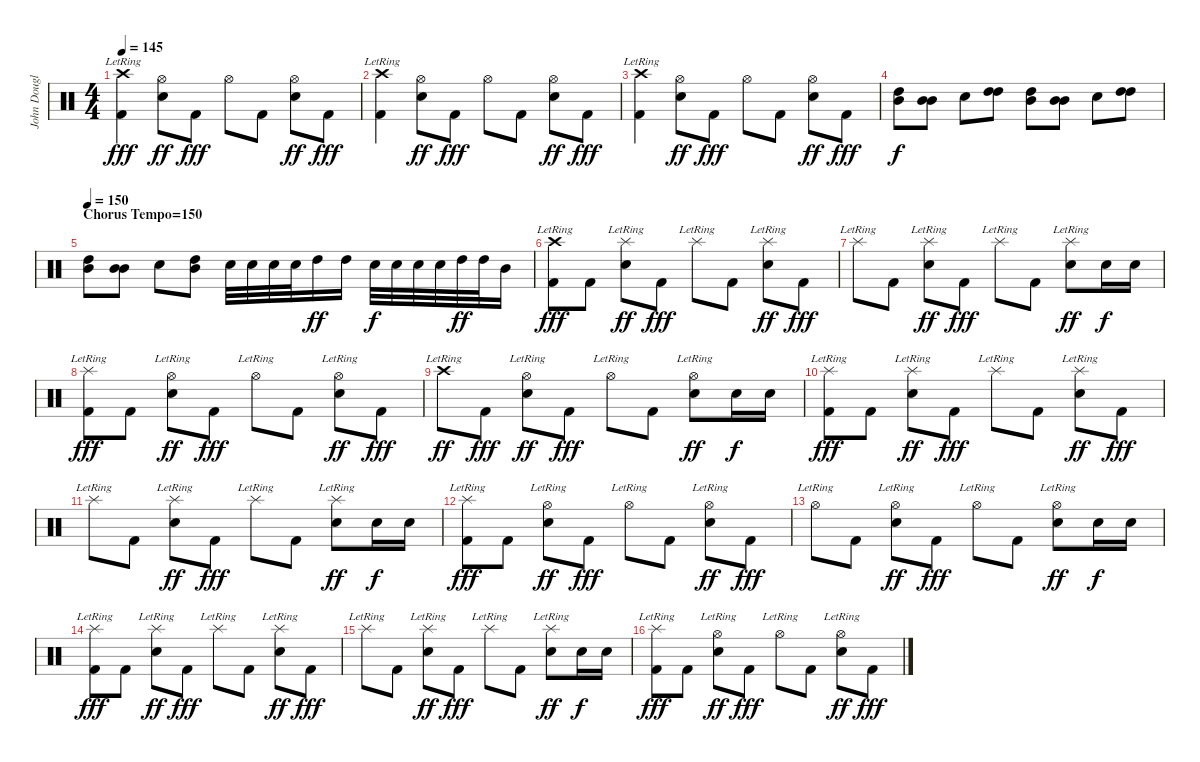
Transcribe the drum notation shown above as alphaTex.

\track ("John Douglas (Drums)" "John Dougl") {instrument percussion}
\staff {score}
\articulation defaults
\ts (4 4)
\tempo 145
\clef neutral
\ks c
("Crash high (hit)"{lr} "Kick (hit) 2").4{dy fff} ("Hi-Hat (open)" "Snare (hit) 2").8{dy ff} "Kick (hit) 2".8{dy fff} "Hi-Hat (open)".8 "Kick (hit) 2".8 ("Hi-Hat (open)" "Snare (hit) 2").8{dy ff} "Kick (hit) 2".8{dy fff} |
("Crash high (hit)"{lr} "Kick (hit) 2").4 ("Hi-Hat (open)" "Snare (hit) 2").8{dy ff} "Kick (hit) 2".8{dy fff} "Hi-Hat (open)".8 "Kick (hit) 2".8 ("Hi-Hat (open)" "Snare (hit) 2").8{dy ff} "Kick (hit) 2".8{dy fff} |
("Crash high (hit)"{lr} "Kick (hit) 2").4 ("Hi-Hat (open)" "Snare (hit) 2").8{dy ff} "Kick (hit) 2".8{dy fff} "Hi-Hat (open)".8 "Kick (hit) 2".8 ("Hi-Hat (open)" "Snare (hit) 2").8{dy ff} "Kick (hit) 2".8{dy fff} |
("High Tom (hit)" "Mid Tom (hit)").8{dy f} ("Mid Tom (hit)" "Mid Tom (hit)").8 "Snare (hit) 2".8 ("High Tom (hit)" "High Tom (hit)").8 ("High Tom (hit)" "Mid Tom (hit)").8 ("Mid Tom (hit)" "Mid Tom (hit)").8 "Snare (hit) 2".8 ("High Tom (hit)" "High Tom (hit)").8 |
\section ("" "Chorus Tempo=150")
\tempo 150
("High Tom (hit)" "Mid Tom (hit)").8 ("Mid Tom (hit)" "Mid Tom (hit)").8 "Snare (hit) 2".8 ("High Tom (hit)" "Mid Tom (hit)").8 "Snare (hit) 2".32 "Snare (hit) 2".32 "Snare (hit) 2".32 "Snare (hit) 2".32 "High Tom (hit)".16{dy ff} "High Tom (hit)".16 "Snare (hit) 2".32{dy f} "Snare (hit) 2".32 "Snare (hit) 2".32 "Snare (hit) 2".32 "High Tom (hit)".32{dy ff} "High Tom (hit)".32 "Mid Tom (hit)".16 |
("Crash high (hit)"{lr} "Kick (hit) 2").8{dy fff} "Kick (hit) 2".8 ("Splash (hit)"{lr} "Snare (hit) 2").8{dy ff} "Kick (hit) 2".8{dy fff} "Splash (hit)"{lr}.8 "Kick (hit) 2".8 ("Splash (hit)"{lr} "Snare (hit) 2").8{dy ff} "Kick (hit) 2".8{dy fff} |
"Splash (hit)"{lr}.8 "Kick (hit) 2".8 ("Splash (hit)"{lr} "Snare (hit) 2").8{dy ff} "Kick (hit) 2".8{dy fff} "Splash (hit)"{lr}.8 "Kick (hit) 2".8 ("Splash (hit)"{lr} "Snare (hit) 2").8{dy ff} "Snare (hit) 2".16{dy f} "Snare (hit) 2".16 |
("Splash (hit)"{lr} "Kick (hit) 2").8{dy fff} "Kick (hit) 2".8 ("Hi-Hat (open)"{lr} "Snare (hit) 2").8{dy ff} "Kick (hit) 2".8{dy fff} "Hi-Hat (open)"{lr}.8 "Kick (hit) 2".8 ("Hi-Hat (open)"{lr} "Snare (hit) 2").8{dy ff} "Kick (hit) 2".8{dy fff} |
"Crash high (hit)"{lr}.8{dy ff} "Kick (hit) 2".8{dy fff} ("Hi-Hat (open)"{lr} "Snare (hit) 2").8{dy ff} "Kick (hit) 2".8{dy fff} "Hi-Hat (open)"{lr}.8 "Kick (hit) 2".8 ("Hi-Hat (open)"{lr} "Snare (hit) 2").8{dy ff} "Snare (hit) 2".16{dy f} "Snare (hit) 2".16 |
("Splash (hit)"{lr} "Kick (hit) 2").8{dy fff} "Kick (hit) 2".8 ("Splash (hit)"{lr} "Snare (hit) 2").8{dy ff} "Kick (hit) 2".8{dy fff} "Splash (hit)"{lr}.8 "Kick (hit) 2".8 ("Splash (hit)"{lr} "Snare (hit) 2").8{dy ff} "Kick (hit) 2".8{dy fff} |
"Splash (hit)"{lr}.8 "Kick (hit) 2".8 ("Splash (hit)"{lr} "Snare (hit) 2").8{dy ff} "Kick (hit) 2".8{dy fff} "Splash (hit)"{lr}.8 "Kick (hit) 2".8 ("Splash (hit)"{lr} "Snare (hit) 2").8{dy ff} "Snare (hit) 2".16{dy f} "Snare (hit) 2".16 |
("Splash (hit)"{lr} "Kick (hit) 2").8{dy fff} "Kick (hit) 2".8 ("Hi-Hat (open)"{lr} "Snare (hit) 2").8{dy ff} "Kick (hit) 2".8{dy fff} "Hi-Hat (open)"{lr}.8 "Kick (hit) 2".8 ("Hi-Hat (open)"{lr} "Snare (hit) 2").8{dy ff} "Kick (hit) 2".8{dy fff} |
"Hi-Hat (open)"{lr}.8 "Kick (hit) 2".8 ("Hi-Hat (open)"{lr} "Snare (hit) 2").8{dy ff} "Kick (hit) 2".8{dy fff} "Hi-Hat (open)"{lr}.8 "Kick (hit) 2".8 ("Hi-Hat (open)"{lr} "Snare (hit) 2").8{dy ff} "Snare (hit) 2".16{dy f} "Snare (hit) 2".16 |
("Splash (hit)"{lr} "Kick (hit) 2").8{dy fff} "Kick (hit) 2".8 ("Splash (hit)"{lr} "Snare (hit) 2").8{dy ff} "Kick (hit) 2".8{dy fff} "Splash (hit)"{lr}.8 "Kick (hit) 2".8 ("Splash (hit)"{lr} "Snare (hit) 2").8{dy ff} "Kick (hit) 2".8{dy fff} |
"Splash (hit)"{lr}.8 "Kick (hit) 2".8 ("Splash (hit)"{lr} "Snare (hit) 2").8{dy ff} "Kick (hit) 2".8{dy fff} "Splash (hit)"{lr}.8 "Kick (hit) 2".8 ("Splash (hit)"{lr} "Snare (hit) 2").8{dy ff} "Snare (hit) 2".16{dy f} "Snare (hit) 2".16 |
("Splash (hit)"{lr} "Kick (hit) 2").8{dy fff} "Kick (hit) 2".8 ("Hi-Hat (open)"{lr} "Snare (hit) 2").8{dy ff} "Kick (hit) 2".8{dy fff} "Hi-Hat (open)"{lr}.8 "Kick (hit) 2".8 ("Hi-Hat (open)"{lr} "Snare (hit) 2").8{dy ff} "Kick (hit) 2".8{dy fff}
